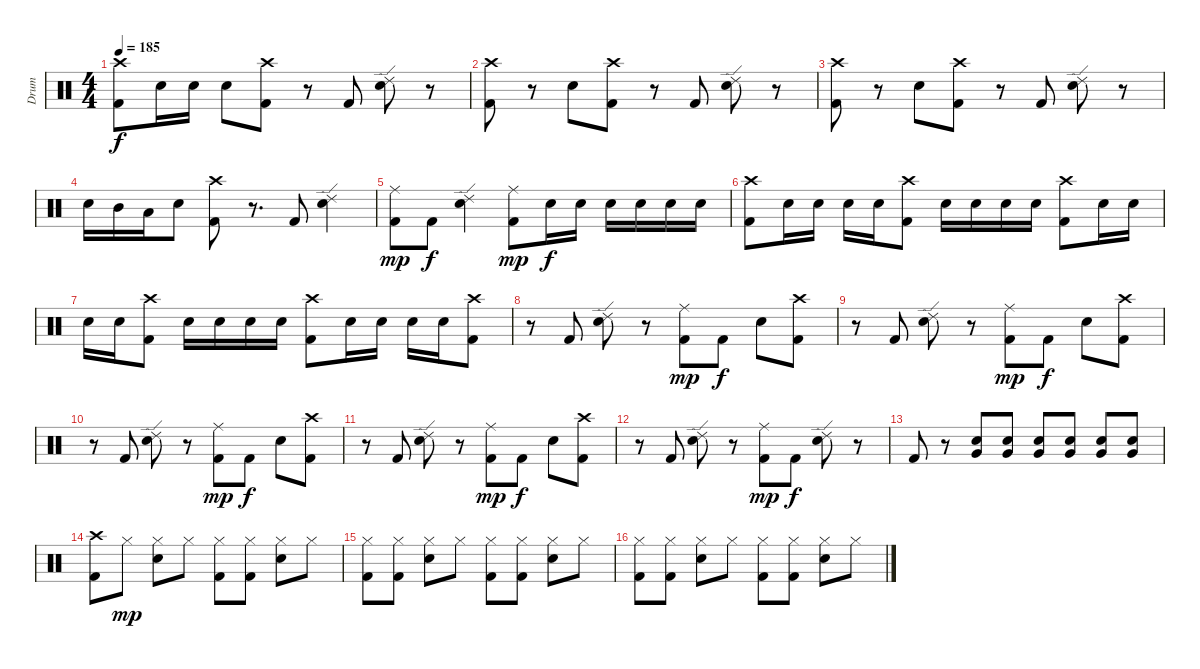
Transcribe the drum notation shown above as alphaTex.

\track ("Drum" "Drum") {instrument percussion}
\staff {score}
\articulation defaults
\ts (4 4)
\tempo 185
\clef neutral
\ks c
("Crash high (hit)" "Kick (hit) 2").8{dy f} "Electric Snare (hit)".16 "Electric Snare (hit)".16 "Electric Snare (hit)".8 ("Crash high (hit)" "Kick (hit) 2").8 r.8 "Kick (hit) 2".8 ("Ride (edge) 2" "Electric Snare (hit)").8 r.8 |
("Crash high (hit)" "Kick (hit) 2").8 r.8 "Electric Snare (hit)".8 ("Crash high (hit)" "Kick (hit) 2").8 r.8 "Kick (hit) 2".8 ("Ride (edge) 2" "Electric Snare (hit)").8 r.8 |
("Crash high (hit)" "Kick (hit) 2").8 r.8 "Electric Snare (hit)".8 ("Crash high (hit)" "Kick (hit) 2").8 r.8 "Kick (hit) 2".8 ("Ride (edge) 2" "Electric Snare (hit)").8 r.8 |
"Electric Snare (hit)".16 "Mid Tom (hit)".16 "Low Tom (hit)".16 "Electric Snare (hit)".8 ("Crash high (hit)" "Kick (hit) 2").8 r.8{d} "Kick (hit) 2".8 ("Ride (edge) 2" "Electric Snare (hit)").4 |
("Ride (middle)" "Kick (hit) 2").8{dy mp} "Kick (hit) 2".8{dy f} ("Ride (edge) 2" "Electric Snare (hit)").4 ("Kick (hit) 2" "Ride (middle)").8{dy mp} "Electric Snare (hit)".16{dy f} "Electric Snare (hit)".16 "Electric Snare (hit)".16 "Electric Snare (hit)".16 "Electric Snare (hit)".16 "Electric Snare (hit)".16 |
("Crash high (hit)" "Kick (hit) 2").8 "Electric Snare (hit)".16 "Electric Snare (hit)".16 "Electric Snare (hit)".16 "Electric Snare (hit)".16 ("Crash high (hit)" "Kick (hit) 2").8 "Electric Snare (hit)".16 "Electric Snare (hit)".16 "Electric Snare (hit)".16 "Electric Snare (hit)".16 ("Crash high (hit)" "Kick (hit) 2").8 "Electric Snare (hit)".16 "Electric Snare (hit)".16 |
"Electric Snare (hit)".16 "Electric Snare (hit)".16 ("Crash high (hit)" "Kick (hit) 2").8 "Electric Snare (hit)".16 "Electric Snare (hit)".16 "Electric Snare (hit)".16 "Electric Snare (hit)".16 ("Crash high (hit)" "Kick (hit) 2").8 "Electric Snare (hit)".16 "Electric Snare (hit)".16 "Electric Snare (hit)".16 "Electric Snare (hit)".16 ("Crash high (hit)" "Kick (hit) 2").8 |
r.8 "Kick (hit) 2".8 ("Ride (edge) 2" "Electric Snare (hit)").8 r.8 ("Kick (hit) 2" "Ride (middle)").8{dy mp} "Kick (hit) 2".8{dy f} "Electric Snare (hit)".8 ("Kick (hit) 2" "Crash high (hit)").8 |
r.8 "Kick (hit) 2".8 ("Ride (edge) 2" "Electric Snare (hit)").8 r.8 ("Kick (hit) 2" "Ride (middle)").8{dy mp} "Kick (hit) 2".8{dy f} "Electric Snare (hit)".8 ("Kick (hit) 2" "Crash high (hit)").8 |
r.8 "Kick (hit) 2".8 ("Ride (edge) 2" "Electric Snare (hit)").8 r.8 ("Kick (hit) 2" "Ride (middle)").8{dy mp} "Kick (hit) 2".8{dy f} "Electric Snare (hit)".8 ("Kick (hit) 2" "Crash high (hit)").8 |
r.8 "Kick (hit) 2".8 ("Ride (edge) 2" "Electric Snare (hit)").8 r.8 ("Kick (hit) 2" "Ride (middle)").8{dy mp} "Kick (hit) 2".8{dy f} "Electric Snare (hit)".8 ("Kick (hit) 2" "Crash high (hit)").8 |
r.8 "Kick (hit) 2".8 ("Ride (edge) 2" "Electric Snare (hit)").8 r.8 ("Kick (hit) 2" "Ride (middle)").8{dy mp} "Kick (hit) 2".8{dy f} ("Ride (edge) 2" "Electric Snare (hit)").8 r.8 |
"Kick (hit) 2".8 r.8 ("Very Low Tom (hit)" "Electric Snare (hit)").8 ("Very Low Tom (hit)" "Electric Snare (hit)").8 ("Very Low Tom (hit)" "Electric Snare (hit)").8 ("Very Low Tom (hit)" "Electric Snare (hit)").8 ("Very Low Tom (hit)" "Electric Snare (hit)").8 ("Very Low Tom (hit)" "Electric Snare (hit)").8 |
("Crash high (hit)" "Kick (hit) 2").8 "Hi-Hat (closed)".8{dy mp} ("Hi-Hat (closed)" "Electric Snare (hit)").8 "Hi-Hat (closed)".8 ("Hi-Hat (closed)" "Kick (hit) 2").8 ("Hi-Hat (closed)" "Kick (hit) 2").8 ("Hi-Hat (closed)" "Electric Snare (hit)").8 "Hi-Hat (closed)".8 |
("Hi-Hat (closed)" "Kick (hit) 2").8 ("Hi-Hat (closed)" "Kick (hit) 2").8 ("Hi-Hat (closed)" "Electric Snare (hit)").8 "Hi-Hat (closed)".8 ("Hi-Hat (closed)" "Kick (hit) 2").8 ("Hi-Hat (closed)" "Kick (hit) 2").8 ("Hi-Hat (closed)" "Electric Snare (hit)").8 "Hi-Hat (closed)".8 |
("Hi-Hat (closed)" "Kick (hit) 2").8 ("Hi-Hat (closed)" "Kick (hit) 2").8 ("Hi-Hat (closed)" "Electric Snare (hit)").8 "Hi-Hat (closed)".8 ("Hi-Hat (closed)" "Kick (hit) 2").8 ("Hi-Hat (closed)" "Kick (hit) 2").8 ("Hi-Hat (closed)" "Electric Snare (hit)").8 "Hi-Hat (closed)".8
